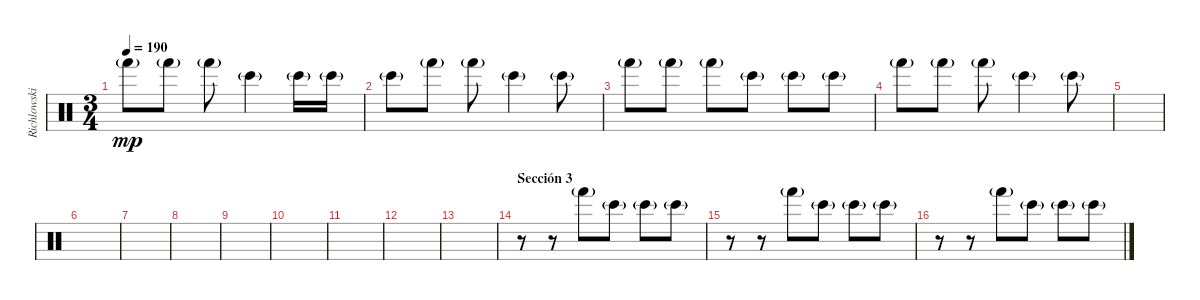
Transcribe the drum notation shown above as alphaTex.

\track ("Richlowski y Dj Raff" "Richlowski") {instrument percussion}
\staff {score}
\articulation defaults
\ts (3 4)
\tempo 190
\clef neutral
\ks c "Hand (hit)"{g}.8{dy mp} "Hand (hit)"{g}.8 "Hand (hit)"{g}.8 "Bongo High (hit)"{g}.4 "Bongo High (hit)"{g}.16 "Bongo High (hit)"{g}.16
|
"Bongo High (hit)"{g}.8 "Hand (hit)"{g}.8 "Hand (hit)"{g}.8 "Bongo High (hit)"{g}.4 "Bongo High (hit)"{g}.8 |
"Hand (hit)"{g}.8 "Hand (hit)"{g}.8 "Hand (hit)"{g}.8 "Bongo High (hit)"{g}.8 "Bongo High (hit)"{g}.8 "Bongo High (hit)"{g}.8 |
"Hand (hit)"{g}.8 "Hand (hit)"{g}.8 "Hand (hit)"{g}.8 "Bongo High (hit)"{g}.4 "Bongo High (hit)"{g}.8 |
|
|
|
|
|
|
|
|
|
\section ("" "Sección 3")
r.8 r.8 "Hand (hit)"{g}.8 "Bongo High (hit)"{g}.8 "Bongo High (hit)"{g}.8 "Bongo High (hit)"{g}.8 |
r.8 r.8 "Hand (hit)"{g}.8 "Bongo High (hit)"{g}.8 "Bongo High (hit)"{g}.8 "Bongo High (hit)"{g}.8 |
r.8 r.8 "Hand (hit)"{g}.8 "Bongo High (hit)"{g}.8 "Bongo High (hit)"{g}.8 "Bongo High (hit)"{g}.8
